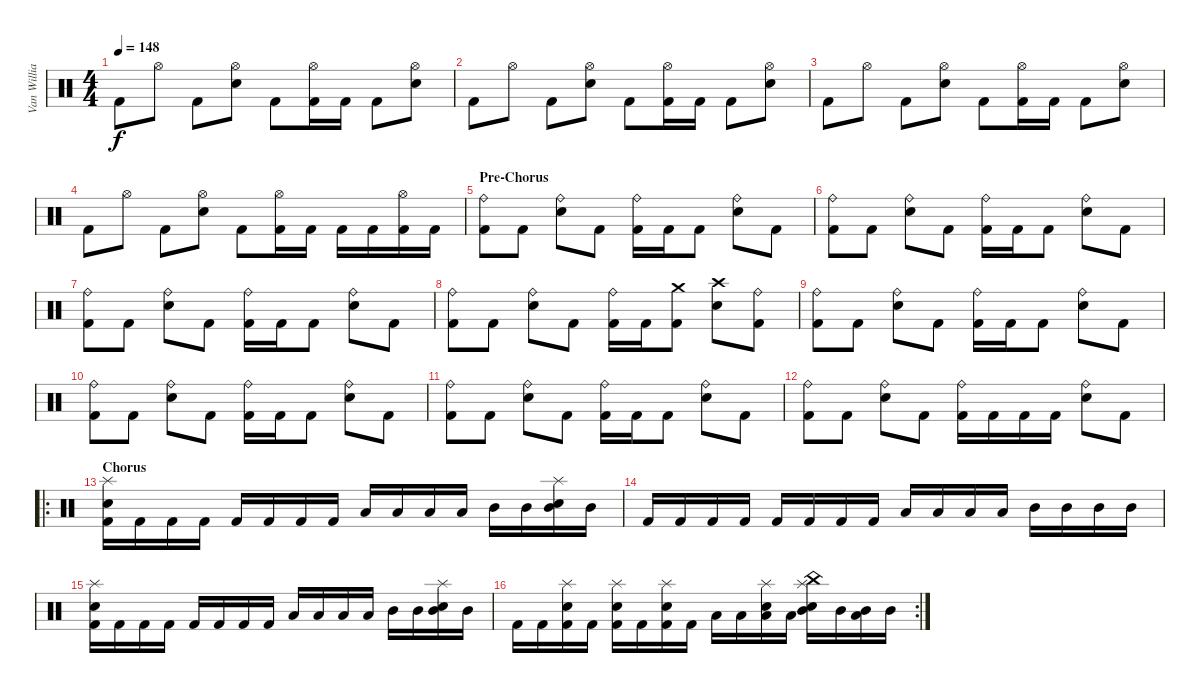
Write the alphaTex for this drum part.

\track ("Van Williams" "Van Willia") {instrument percussion}
\staff {score}
\articulation defaults
\ts (4 4)
\tempo 148
\clef neutral
\ks c "Kick (hit) 2".8{dy f} "Hi-Hat (open)".8 "Kick (hit) 2".8
("Hi-Hat (open)" "Electric Snare (hit)").8 "Kick (hit) 2".8 ("Hi-Hat (open)" "Kick (hit) 2").16 "Kick (hit) 2".16 "Kick (hit) 2".8 ("Hi-Hat (open)" "Electric Snare (hit)").8 |
"Kick (hit) 2".8 "Hi-Hat (open)".8 "Kick (hit) 2".8 ("Hi-Hat (open)" "Electric Snare (hit)").8 "Kick (hit) 2".8 ("Hi-Hat (open)" "Kick (hit) 2").16 "Kick (hit) 2".16 "Kick (hit) 2".8 ("Hi-Hat (open)" "Electric Snare (hit)").8 |
"Kick (hit) 2".8 "Hi-Hat (open)".8 "Kick (hit) 2".8 ("Hi-Hat (open)" "Electric Snare (hit)").8 "Kick (hit) 2".8 ("Hi-Hat (open)" "Kick (hit) 2").16 "Kick (hit) 2".16 "Kick (hit) 2".8 ("Hi-Hat (open)" "Electric Snare (hit)").8 |
"Kick (hit) 2".8 "Hi-Hat (open)".8 "Kick (hit) 2".8 ("Hi-Hat (open)" "Electric Snare (hit)").8 "Kick (hit) 2".8 ("Hi-Hat (open)" "Kick (hit) 2").16 "Kick (hit) 2".16 "Kick (hit) 2".16 "Kick (hit) 2".16 ("Hi-Hat (open)" "Kick (hit) 2").16 "Kick (hit) 2".16 |
\section ("" "Pre-Chorus")
("Ride (bell)" "Kick (hit) 2").8 "Kick (hit) 2".8 ("Ride (bell)" "Electric Snare (hit)").8 "Kick (hit) 2".8 ("Ride (bell)" "Kick (hit) 2").16 "Kick (hit) 2".16 "Kick (hit) 2".8 ("Ride (bell)" "Electric Snare (hit)").8 "Kick (hit) 2".8 |
("Ride (bell)" "Kick (hit) 2").8 "Kick (hit) 2".8 ("Ride (bell)" "Electric Snare (hit)").8 "Kick (hit) 2".8 ("Ride (bell)" "Kick (hit) 2").16 "Kick (hit) 2".16 "Kick (hit) 2".8 ("Ride (bell)" "Electric Snare (hit)").8 "Kick (hit) 2".8 |
("Ride (bell)" "Kick (hit) 2").8 "Kick (hit) 2".8 ("Ride (bell)" "Electric Snare (hit)").8 "Kick (hit) 2".8 ("Ride (bell)" "Kick (hit) 2").16 "Kick (hit) 2".16 "Kick (hit) 2".8 ("Ride (bell)" "Electric Snare (hit)").8 "Kick (hit) 2".8 |
("Ride (bell)" "Kick (hit) 2").8 "Kick (hit) 2".8 ("Ride (bell)" "Electric Snare (hit)").8 "Kick (hit) 2".8 ("Ride (bell)" "Kick (hit) 2").16 "Kick (hit) 2".16 ("Crash medium (hit)" "Kick (hit) 2").8 ("Crash high (hit)" "Electric Snare (hit)").8 ("Ride (bell)" "Kick (hit) 2").8 |
("Ride (bell)" "Kick (hit) 2").8 "Kick (hit) 2".8 ("Ride (bell)" "Electric Snare (hit)").8 "Kick (hit) 2".8 ("Ride (bell)" "Kick (hit) 2").16 "Kick (hit) 2".16 "Kick (hit) 2".8 ("Ride (bell)" "Electric Snare (hit)").8 "Kick (hit) 2".8 |
("Ride (bell)" "Kick (hit) 2").8 "Kick (hit) 2".8 ("Ride (bell)" "Electric Snare (hit)").8 "Kick (hit) 2".8 ("Ride (bell)" "Kick (hit) 2").16 "Kick (hit) 2".16 "Kick (hit) 2".8 ("Ride (bell)" "Electric Snare (hit)").8 "Kick (hit) 2".8 |
("Ride (bell)" "Kick (hit) 2").8 "Kick (hit) 2".8 ("Ride (bell)" "Electric Snare (hit)").8 "Kick (hit) 2".8 ("Ride (bell)" "Kick (hit) 2").16 "Kick (hit) 2".16 "Kick (hit) 2".8 ("Ride (bell)" "Electric Snare (hit)").8 "Kick (hit) 2".8 |
("Ride (bell)" "Kick (hit) 2").8 "Kick (hit) 2".8 ("Ride (bell)" "Electric Snare (hit)").8 "Kick (hit) 2".8 ("Ride (bell)" "Kick (hit) 2").16 "Kick (hit) 2".16 "Kick (hit) 2".16 "Kick (hit) 2".16 ("Ride (bell)" "Electric Snare (hit)").8 "Kick (hit) 2".8 |
\ro
\section ("" "Chorus")
("Splash (hit)" "Electric Snare (hit)" "Kick (hit) 2").16 "Kick (hit) 2".16 "Kick (hit) 2".16 "Kick (hit) 2".16 "Kick (hit) 2".16 "Kick (hit) 2".16 "Kick (hit) 2".16 "Kick (hit) 2".16 "Low Tom (hit)".16 "Low Tom (hit)".16 "Low Tom (hit)".16 "Low Tom (hit)".16 "Mid Tom (hit)".16 "Mid Tom (hit)".16 ("Splash (hit)" "Electric Snare (hit)" "Mid Tom (hit)").16 "Mid Tom (hit)".16 |
"Kick (hit) 2".16 "Kick (hit) 2".16 "Kick (hit) 2".16 "Kick (hit) 2".16 "Kick (hit) 2".16 "Kick (hit) 2".16 "Kick (hit) 2".16 "Kick (hit) 2".16 "Low Tom (hit)".16 "Low Tom (hit)".16 "Low Tom (hit)".16 "Low Tom (hit)".16 "Mid Tom (hit)".16 "Mid Tom (hit)".16 "Mid Tom (hit)".16 "Mid Tom (hit)".16 |
("Splash (hit)" "Electric Snare (hit)" "Kick (hit) 2").16 "Kick (hit) 2".16 "Kick (hit) 2".16 "Kick (hit) 2".16 "Kick (hit) 2".16 "Kick (hit) 2".16 "Kick (hit) 2".16 "Kick (hit) 2".16 "Low Tom (hit)".16 "Low Tom (hit)".16 "Low Tom (hit)".16 "Low Tom (hit)".16 "Mid Tom (hit)".16 "Mid Tom (hit)".16 ("Splash (hit)" "Electric Snare (hit)" "Mid Tom (hit)").16 "Mid Tom (hit)".16 |
\rc 2 "Kick (hit) 2".16 "Kick (hit) 2".16
("Splash (hit)" "Electric Snare (hit)" "Kick (hit) 2").16 "Kick (hit) 2".16 ("Splash (hit)" "Electric Snare (hit)" "Kick (hit) 2").16 "Kick (hit) 2".16 ("Splash (hit)" "Electric Snare (hit)" "Kick (hit) 2").16 "Kick (hit) 2".16 "Low Tom (hit)".16 "Low Tom (hit)".16 ("Splash (hit)" "Electric Snare (hit)" "Low Tom (hit)").16 "Low Tom (hit)".16 ("Splash (hit)" "China (hit)" "Electric Snare (hit)" "Mid Tom (hit)").16 "Mid Tom (hit)".16 ("Low Tom (hit)" "Mid Tom (hit)").16 "Mid Tom (hit)".16
